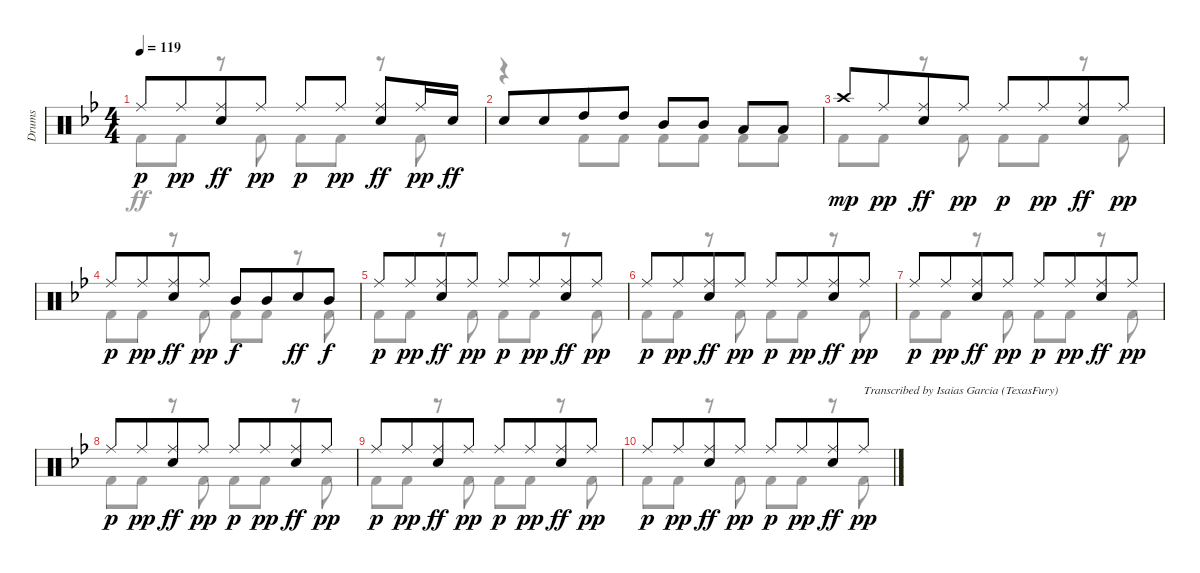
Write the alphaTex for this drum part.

\track ("Drums" "Drums") {instrument percussion}
\staff {score}
\articulation defaults
\voice
\ts (4 4)
\tempo 119
\clef neutral
\ks bb "Ride (middle)".8{dy p} "Ride (middle)".8{dy pp beam merge}
("Ride (middle)" "Electric Snare (hit)").8{dy ff} "Ride (middle)".8{dy pp} "Ride (middle)".8{dy p} "Ride (middle)".8{dy pp} ("Ride (middle)" "Electric Snare (hit)").8{dy ff} "Ride (middle)".16{dy pp} "Electric Snare (hit)".16{dy ff} |
"Electric Snare (hit)".8 "Electric Snare (hit)".8{beam merge} "High Tom (hit)".8 "High Tom (hit)".8 "Mid Tom (hit)".8 "Mid Tom (hit)".8{beam split} "Low Tom (hit)".8 "Low Tom (hit)".8 |
"Crash high (hit)".8{dy mp volume 6} "Ride (middle)".8{dy pp beam merge} ("Ride (middle)" "Electric Snare (hit)").8{dy ff} "Ride (middle)".8{dy pp} "Ride (middle)".8{dy p} "Ride (middle)".8{dy pp beam merge} ("Ride (middle)" "Electric Snare (hit)").8{dy ff} "Ride (middle)".8{dy pp} |
"Ride (middle)".8{dy p} "Ride (middle)".8{dy pp beam merge} ("Ride (middle)" "Electric Snare (hit)").8{dy ff} "Ride (middle)".8{dy pp} "Mid Tom (hit)".8{dy f} "Mid Tom (hit)".8{beam merge} "Electric Snare (hit)".8{dy ff} "Mid Tom (hit)".8{dy f} |
"Ride (middle)".8{dy p} "Ride (middle)".8{dy pp beam merge} ("Ride (middle)" "Electric Snare (hit)").8{dy ff} "Ride (middle)".8{dy pp} "Ride (middle)".8{dy p} "Ride (middle)".8{dy pp beam merge} ("Ride (middle)" "Electric Snare (hit)").8{dy ff} "Ride (middle)".8{dy pp} |
"Ride (middle)".8{dy p} "Ride (middle)".8{dy pp beam merge} ("Ride (middle)" "Electric Snare (hit)").8{dy ff} "Ride (middle)".8{dy pp} "Ride (middle)".8{dy p} "Ride (middle)".8{dy pp beam merge} ("Ride (middle)" "Electric Snare (hit)").8{dy ff} "Ride (middle)".8{dy pp} |
"Ride (middle)".8{dy p volume 0} "Ride (middle)".8{dy pp beam merge} ("Ride (middle)" "Electric Snare (hit)").8{dy ff} "Ride (middle)".8{dy pp} "Ride (middle)".8{dy p} "Ride (middle)".8{dy pp beam merge} ("Ride (middle)" "Electric Snare (hit)").8{dy ff} "Ride (middle)".8{dy pp} |
"Ride (middle)".8{dy p} "Ride (middle)".8{dy pp beam merge} ("Ride (middle)" "Electric Snare (hit)").8{dy ff} "Ride (middle)".8{dy pp} "Ride (middle)".8{dy p} "Ride (middle)".8{dy pp beam merge} ("Ride (middle)" "Electric Snare (hit)").8{dy ff} "Ride (middle)".8{dy pp} |
"Ride (middle)".8{dy p} "Ride (middle)".8{dy pp beam merge} ("Ride (middle)" "Electric Snare (hit)").8{dy ff} "Ride (middle)".8{dy pp} "Ride (middle)".8{dy p} "Ride (middle)".8{dy pp beam merge} ("Ride (middle)" "Electric Snare (hit)").8{dy ff} "Ride (middle)".8{dy pp} |
"Ride (middle)".8{dy p} "Ride (middle)".8{dy pp beam merge} ("Ride (middle)" "Electric Snare (hit)").8{dy ff} "Ride (middle)".8{dy pp} "Ride (middle)".8{dy p} "Ride (middle)".8{dy pp beam merge} ("Ride (middle)" "Electric Snare (hit)").8{dy ff} "Ride (middle)".8{txt "Transcribed by Isaias Garcia (TexasFury)" dy pp}
\voice
\clef neutral
\ottava regular
\simile none
\ks bb "Kick (hit) 2".8{dy ff} "Kick (hit) 2".8
r.8 "Kick (hit) 2".8 "Kick (hit) 2".8 "Kick (hit) 2".8 r.8 "Kick (hit) 2".8 |
r.4 "Kick (hit) 2".8 "Kick (hit) 2".8 "Kick (hit) 2".8 "Kick (hit) 2".8 "Kick (hit) 2".8 "Kick (hit) 2".8 |
"Kick (hit) 2".8 "Kick (hit) 2".8 r.8 "Kick (hit) 2".8 "Kick (hit) 2".8 "Kick (hit) 2".8 r.8 "Kick (hit) 2".8 |
"Kick (hit) 2".8 "Kick (hit) 2".8 r.8 "Kick (hit) 2".8 "Kick (hit) 2".8 "Kick (hit) 2".8 r.8 "Kick (hit) 2".8 |
"Kick (hit) 2".8 "Kick (hit) 2".8 r.8 "Kick (hit) 2".8 "Kick (hit) 2".8 "Kick (hit) 2".8 r.8 "Kick (hit) 2".8 |
"Kick (hit) 2".8 "Kick (hit) 2".8 r.8 "Kick (hit) 2".8 "Kick (hit) 2".8 "Kick (hit) 2".8 r.8 "Kick (hit) 2".8 |
"Kick (hit) 2".8 "Kick (hit) 2".8 r.8 "Kick (hit) 2".8 "Kick (hit) 2".8 "Kick (hit) 2".8 r.8 "Kick (hit) 2".8 |
"Kick (hit) 2".8 "Kick (hit) 2".8 r.8 "Kick (hit) 2".8 "Kick (hit) 2".8 "Kick (hit) 2".8 r.8 "Kick (hit) 2".8 |
"Kick (hit) 2".8 "Kick (hit) 2".8 r.8 "Kick (hit) 2".8 "Kick (hit) 2".8 "Kick (hit) 2".8 r.8 "Kick (hit) 2".8 |
"Kick (hit) 2".8 "Kick (hit) 2".8 r.8 "Kick (hit) 2".8 "Kick (hit) 2".8 "Kick (hit) 2".8 r.8 "Kick (hit) 2".8
